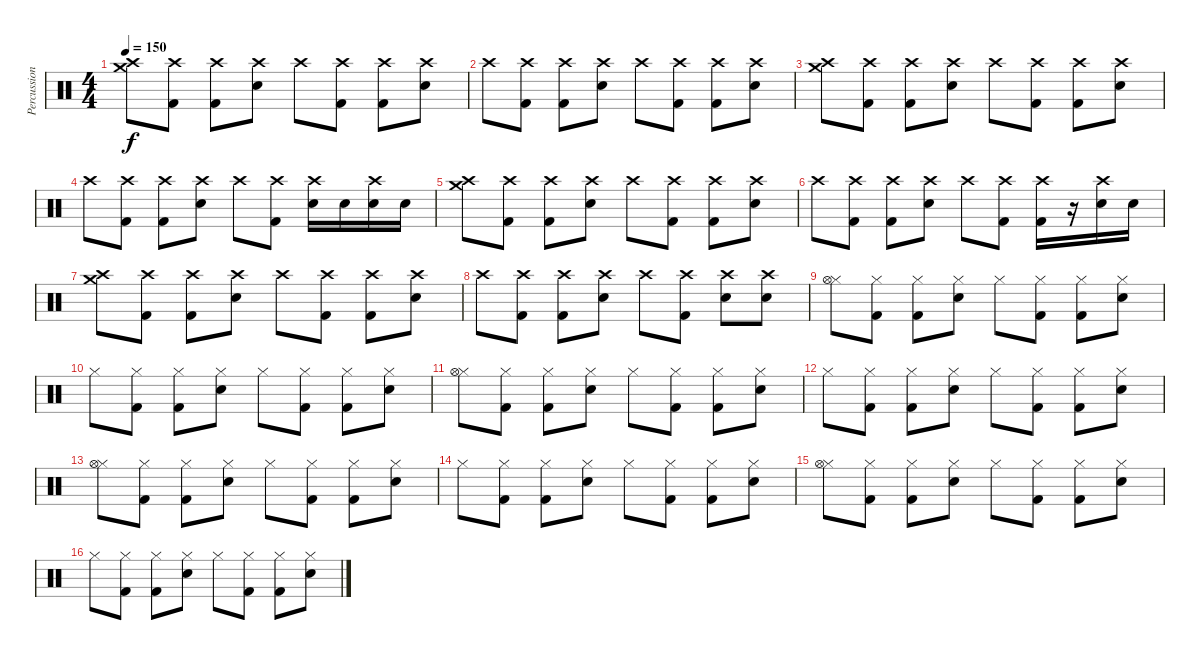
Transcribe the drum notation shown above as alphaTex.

\track ("Percussioni" "Percussion") {instrument percussion}
\staff {score}
\articulation defaults
\ts (4 4)
\tempo 150
\clef neutral
\ks c
("Crash high (hit)" "Crash medium (hit)").8{dy f} ("Crash high (hit)" "Kick (hit) 2").8 ("Crash high (hit)" "Kick (hit) 2").8 ("Crash high (hit)" "Snare (hit) 2").8 "Crash high (hit)".8 ("Crash high (hit)" "Kick (hit) 2").8 ("Crash high (hit)" "Kick (hit) 2").8 ("Crash high (hit)" "Snare (hit) 2").8 |
"Crash high (hit)".8 ("Crash high (hit)" "Kick (hit) 2").8 ("Crash high (hit)" "Kick (hit) 2").8 ("Crash high (hit)" "Snare (hit) 2").8 "Crash high (hit)".8 ("Crash high (hit)" "Kick (hit) 2").8 ("Crash high (hit)" "Kick (hit) 2").8 ("Crash high (hit)" "Snare (hit) 2").8 |
("Crash high (hit)" "Crash medium (hit)").8 ("Crash high (hit)" "Kick (hit) 2").8 ("Crash high (hit)" "Kick (hit) 2").8 ("Crash high (hit)" "Snare (hit) 2").8 "Crash high (hit)".8 ("Crash high (hit)" "Kick (hit) 2").8 ("Crash high (hit)" "Kick (hit) 2").8 ("Crash high (hit)" "Snare (hit) 2").8 |
"Crash high (hit)".8 ("Crash high (hit)" "Kick (hit) 2").8 ("Crash high (hit)" "Kick (hit) 2").8 ("Crash high (hit)" "Snare (hit) 2").8 "Crash high (hit)".8 ("Crash high (hit)" "Kick (hit) 2").8 ("Crash high (hit)" "Snare (hit) 2").16 "Snare (hit) 2".16 ("Crash high (hit)" "Snare (hit) 2").16 "Snare (hit) 2".16 |
("Crash high (hit)" "Crash medium (hit)").8 ("Crash high (hit)" "Kick (hit) 2").8 ("Crash high (hit)" "Kick (hit) 2").8 ("Crash high (hit)" "Snare (hit) 2").8 "Crash high (hit)".8 ("Crash high (hit)" "Kick (hit) 2").8 ("Crash high (hit)" "Kick (hit) 2").8 ("Crash high (hit)" "Snare (hit) 2").8 |
"Crash high (hit)".8 ("Crash high (hit)" "Kick (hit) 2").8 ("Crash high (hit)" "Kick (hit) 2").8 ("Crash high (hit)" "Snare (hit) 2").8 "Crash high (hit)".8 ("Crash high (hit)" "Kick (hit) 2").8 ("Crash high (hit)" "Kick (hit) 2").16 r.16 ("Crash high (hit)" "Snare (hit) 2").16 "Snare (hit) 2".16 |
("Crash high (hit)" "Crash medium (hit)").8 ("Crash high (hit)" "Kick (hit) 2").8 ("Crash high (hit)" "Kick (hit) 2").8 ("Crash high (hit)" "Snare (hit) 2").8 "Crash high (hit)".8 ("Crash high (hit)" "Kick (hit) 2").8 ("Crash high (hit)" "Kick (hit) 2").8 ("Crash high (hit)" "Snare (hit) 2").8 |
"Crash high (hit)".8 ("Crash high (hit)" "Kick (hit) 2").8 ("Crash high (hit)" "Kick (hit) 2").8 ("Crash high (hit)" "Snare (hit) 2").8 "Crash high (hit)".8 ("Crash high (hit)" "Kick (hit) 2").8 ("Crash high (hit)" "Snare (hit) 2").8 ("Crash high (hit)" "Snare (hit) 2").8 |
("Hi-Hat (closed)" "Hi-Hat (open)").8 ("Hi-Hat (closed)" "Kick (hit) 2").8 ("Hi-Hat (closed)" "Kick (hit) 2").8 ("Hi-Hat (closed)" "Snare (hit) 2").8 "Hi-Hat (closed)".8 ("Hi-Hat (closed)" "Kick (hit) 2").8 ("Hi-Hat (closed)" "Kick (hit) 2").8 ("Hi-Hat (closed)" "Snare (hit) 2").8 |
"Hi-Hat (closed)".8 ("Hi-Hat (closed)" "Kick (hit) 2").8 ("Hi-Hat (closed)" "Kick (hit) 2").8 ("Hi-Hat (closed)" "Snare (hit) 2").8 "Hi-Hat (closed)".8 ("Hi-Hat (closed)" "Kick (hit) 2").8 ("Hi-Hat (closed)" "Kick (hit) 2").8 ("Hi-Hat (closed)" "Snare (hit) 2").8 |
("Hi-Hat (closed)" "Hi-Hat (open)").8 ("Hi-Hat (closed)" "Kick (hit) 2").8 ("Hi-Hat (closed)" "Kick (hit) 2").8 ("Hi-Hat (closed)" "Snare (hit) 2").8 "Hi-Hat (closed)".8 ("Hi-Hat (closed)" "Kick (hit) 2").8 ("Hi-Hat (closed)" "Kick (hit) 2").8 ("Hi-Hat (closed)" "Snare (hit) 2").8 |
"Hi-Hat (closed)".8 ("Hi-Hat (closed)" "Kick (hit) 2").8 ("Hi-Hat (closed)" "Kick (hit) 2").8 ("Hi-Hat (closed)" "Snare (hit) 2").8 "Hi-Hat (closed)".8 ("Hi-Hat (closed)" "Kick (hit) 2").8 ("Hi-Hat (closed)" "Kick (hit) 2").8 ("Hi-Hat (closed)" "Snare (hit) 2").8 |
("Hi-Hat (closed)" "Hi-Hat (open)").8 ("Hi-Hat (closed)" "Kick (hit) 2").8 ("Hi-Hat (closed)" "Kick (hit) 2").8 ("Hi-Hat (closed)" "Snare (hit) 2").8 "Hi-Hat (closed)".8 ("Hi-Hat (closed)" "Kick (hit) 2").8 ("Hi-Hat (closed)" "Kick (hit) 2").8 ("Hi-Hat (closed)" "Snare (hit) 2").8 |
"Hi-Hat (closed)".8 ("Hi-Hat (closed)" "Kick (hit) 2").8 ("Hi-Hat (closed)" "Kick (hit) 2").8 ("Hi-Hat (closed)" "Snare (hit) 2").8 "Hi-Hat (closed)".8 ("Hi-Hat (closed)" "Kick (hit) 2").8 ("Hi-Hat (closed)" "Kick (hit) 2").8 ("Hi-Hat (closed)" "Snare (hit) 2").8 |
("Hi-Hat (closed)" "Hi-Hat (open)").8 ("Hi-Hat (closed)" "Kick (hit) 2").8 ("Hi-Hat (closed)" "Kick (hit) 2").8 ("Hi-Hat (closed)" "Snare (hit) 2").8 "Hi-Hat (closed)".8 ("Hi-Hat (closed)" "Kick (hit) 2").8 ("Hi-Hat (closed)" "Kick (hit) 2").8 ("Hi-Hat (closed)" "Snare (hit) 2").8 |
"Hi-Hat (closed)".8 ("Hi-Hat (closed)" "Kick (hit) 2").8 ("Hi-Hat (closed)" "Kick (hit) 2").8 ("Hi-Hat (closed)" "Snare (hit) 2").8 "Hi-Hat (closed)".8 ("Hi-Hat (closed)" "Kick (hit) 2").8 ("Hi-Hat (closed)" "Kick (hit) 2").8 ("Hi-Hat (closed)" "Snare (hit) 2").8
